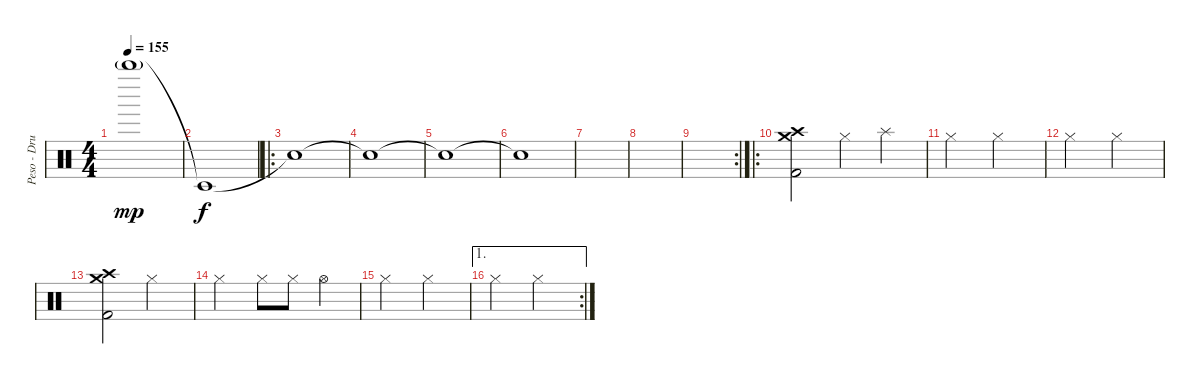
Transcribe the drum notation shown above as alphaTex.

\track ("Peso - Drums" "Peso - Dru") {instrument percussion}
\staff {score}
\articulation defaults
\ts (4 4)
\tempo 155
\clef neutral
\ks c "Whistle high (hit)"{g}.1{dy mp volume 10}
|
"Timbale low (hit)"{t}.1{dy f} |
\ro "Snare (hit)"{t}.1
|
"Snare (hit)"{t}.1 |
"Snare (hit)"{t}.1 |
"Snare (hit)"{t}.1 |
|
|
\rc 2
|
\ro
("Crash high (hit)" "Crash medium (hit)" "Kick (hit) 2").2{volume 13} "Hi-Hat (closed)".4 "Splash (hit)".4 |
"Hi-Hat (closed)".2 "Hi-Hat (closed)".2 |
"Hi-Hat (closed)".2 "Hi-Hat (closed)".2 |
("Crash high (hit)" "Crash medium (hit)" "Kick (hit) 2").2 "Hi-Hat (closed)".2 |
"Hi-Hat (closed)".2 "Hi-Hat (closed)".8 "Hi-Hat (closed)".8 "Hi-Hat (open)".4 |
"Hi-Hat (closed)".2 "Hi-Hat (closed)".2 |
\ae 1
\rc 2 "Hi-Hat (closed)".2 "Hi-Hat (closed)".2
